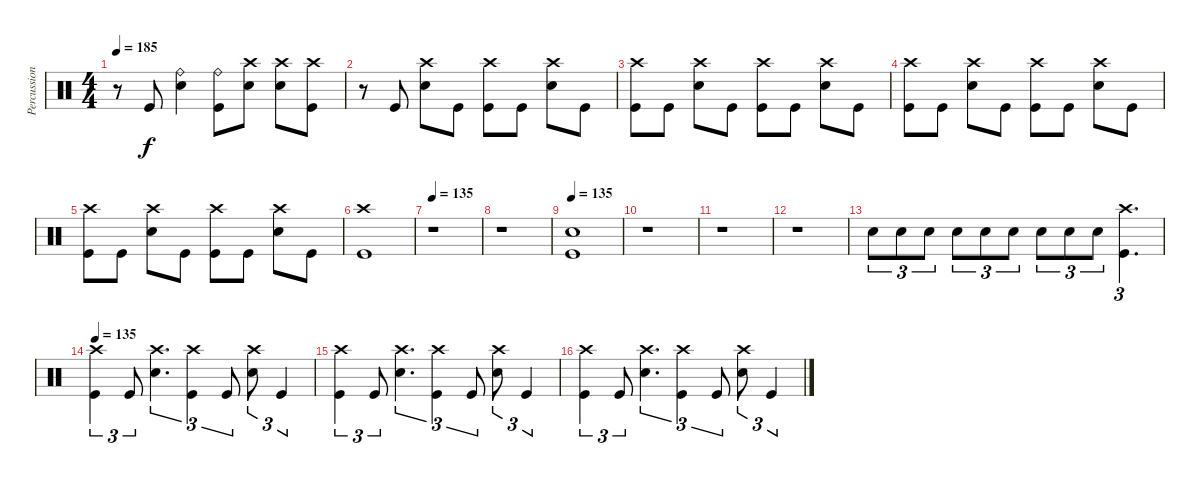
\track ("Percussion" "Percussion") {instrument percussion}
\staff {score}
\articulation defaults
\ts (4 4)
\tempo 185
\clef neutral
\ks c
r.8{dy f} "Kick (hit)".8 ("Ride (bell)" "Snare (hit) 2").4 ("Ride (bell)" "Kick (hit)").8 ("Crash high (hit)" "Snare (hit) 2").8 ("Crash high (hit)" "Snare (hit) 2").8 ("Crash high (hit)" "Kick (hit)").8 |
r.8 "Kick (hit)".8 ("Crash high (hit)" "Snare (hit) 2").8 "Kick (hit)".8 ("Crash high (hit)" "Kick (hit)").8 "Kick (hit)".8 ("Crash high (hit)" "Snare (hit) 2").8 "Kick (hit)".8 |
("Crash high (hit)" "Kick (hit)").8 "Kick (hit)".8 ("Crash high (hit)" "Snare (hit) 2").8 "Kick (hit)".8 ("Crash high (hit)" "Kick (hit)").8 "Kick (hit)".8 ("Crash high (hit)" "Snare (hit) 2").8 "Kick (hit)".8 |
("Crash high (hit)" "Kick (hit)").8 "Kick (hit)".8 ("Crash high (hit)" "Snare (hit) 2").8 "Kick (hit)".8 ("Crash high (hit)" "Kick (hit)").8 "Kick (hit)".8 ("Crash high (hit)" "Snare (hit) 2").8 "Kick (hit)".8 |
("Crash high (hit)" "Kick (hit)").8 "Kick (hit)".8 ("Crash high (hit)" "Snare (hit) 2").8 "Kick (hit)".8 ("Crash high (hit)" "Kick (hit)").8 "Kick (hit)".8 ("Crash high (hit)" "Snare (hit) 2").8 "Kick (hit)".8 |
("Crash high (hit)" "Kick (hit)").1 |
\tempo 135
r.1 |
r.1 |
\tempo 135
("Snare (hit) 2" "Kick (hit)").1 |
r.1 |
r.1 |
r.1 |
"Snare (hit) 2".8{tu (3 2)} "Snare (hit) 2".8{tu (3 2)} "Snare (hit) 2".8{tu (3 2)} "Snare (hit) 2".8{tu (3 2)} "Snare (hit) 2".8{tu (3 2)} "Snare (hit) 2".8{tu (3 2)} "Snare (hit) 2".8{tu (3 2)} "Snare (hit) 2".8{tu (3 2)} "Snare (hit) 2".8{tu (3 2)} ("Crash high (hit)" "Kick (hit)").4{d tu (3 2)} |
\tempo 135
("Crash high (hit)" "Kick (hit)").4{tu (3 2)} "Kick (hit)".8{tu (3 2)} ("Crash high (hit)" "Snare (hit) 2").4{d tu (3 2)} ("Crash high (hit)" "Kick (hit)").4{tu (3 2)} "Kick (hit)".8{tu (3 2)} ("Crash high (hit)" "Snare (hit) 2").8{tu (3 2)} "Kick (hit)".4{tu (3 2)} |
("Crash high (hit)" "Kick (hit)").4{tu (3 2)} "Kick (hit)".8{tu (3 2)} ("Crash high (hit)" "Snare (hit) 2").4{d tu (3 2)} ("Crash high (hit)" "Kick (hit)").4{tu (3 2)} "Kick (hit)".8{tu (3 2)} ("Crash high (hit)" "Snare (hit) 2").8{tu (3 2)} "Kick (hit)".4{tu (3 2)} |
("Crash high (hit)" "Kick (hit)").4{tu (3 2)} "Kick (hit)".8{tu (3 2)} ("Crash high (hit)" "Snare (hit) 2").4{d tu (3 2)} ("Crash high (hit)" "Kick (hit)").4{tu (3 2)} "Kick (hit)".8{tu (3 2)} ("Crash high (hit)" "Snare (hit) 2").8{tu (3 2)} "Kick (hit)".4{tu (3 2)}
